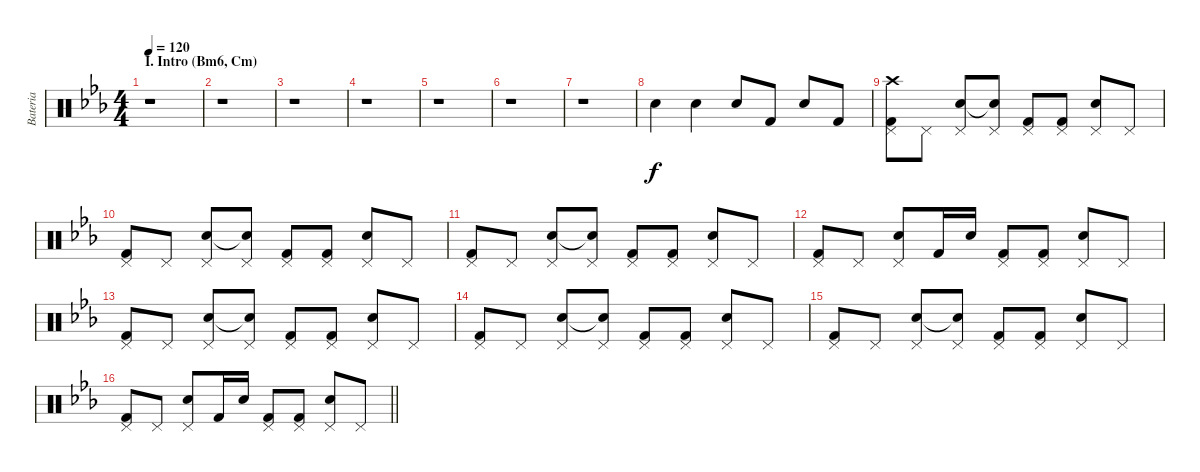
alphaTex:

\track ("Bateria" "Bateria") {instrument percussion}
\staff {score}
\articulation defaults
\ts (4 4)
\section ("" "I. Intro (Bm6, Cm)")
\tempo 120
\clef neutral
\ks eb
r.1{dy f} |
r.1 |
r.1 |
r.1 |
r.1 |
r.1 |
r.1 |
"Snare (hit) 2".4 "Snare (hit) 2".4 "Snare (hit) 2".8 "Kick (hit) 2".8 "Snare (hit) 2".8 "Kick (hit) 2".8 |
("Pedal Hi-Hat (hit)" "Crash high (hit)" "Kick (hit) 2").8 "Pedal Hi-Hat (hit)".8 ("Pedal Hi-Hat (hit)" "Snare (hit) 2").8 ("Pedal Hi-Hat (hit)" "Snare (hit)"{t}).8 ("Pedal Hi-Hat (hit)" "Kick (hit) 2").8 ("Pedal Hi-Hat (hit)" "Kick (hit) 2").8 ("Pedal Hi-Hat (hit)" "Snare (hit) 2").8 "Pedal Hi-Hat (hit)".8 |
("Pedal Hi-Hat (hit)" "Kick (hit) 2").8 "Pedal Hi-Hat (hit)".8 ("Pedal Hi-Hat (hit)" "Snare (hit) 2").8 ("Pedal Hi-Hat (hit)" "Snare (hit)"{t}).8 ("Pedal Hi-Hat (hit)" "Kick (hit) 2").8 ("Pedal Hi-Hat (hit)" "Kick (hit) 2").8 ("Pedal Hi-Hat (hit)" "Snare (hit) 2").8 "Pedal Hi-Hat (hit)".8 |
("Pedal Hi-Hat (hit)" "Kick (hit) 2").8 "Pedal Hi-Hat (hit)".8 ("Pedal Hi-Hat (hit)" "Snare (hit) 2").8 ("Pedal Hi-Hat (hit)" "Snare (hit)"{t}).8 ("Pedal Hi-Hat (hit)" "Kick (hit) 2").8 ("Pedal Hi-Hat (hit)" "Kick (hit) 2").8 ("Pedal Hi-Hat (hit)" "Snare (hit) 2").8 "Pedal Hi-Hat (hit)".8 |
("Pedal Hi-Hat (hit)" "Kick (hit) 2").8 "Pedal Hi-Hat (hit)".8 ("Pedal Hi-Hat (hit)" "Snare (hit) 2").8 "Kick (hit) 2".16 "Snare (hit) 2".16 ("Pedal Hi-Hat (hit)" "Kick (hit) 2").8 ("Pedal Hi-Hat (hit)" "Kick (hit) 2").8 ("Pedal Hi-Hat (hit)" "Snare (hit) 2").8 "Pedal Hi-Hat (hit)".8 |
("Pedal Hi-Hat (hit)" "Kick (hit) 2").8 "Pedal Hi-Hat (hit)".8 ("Pedal Hi-Hat (hit)" "Snare (hit) 2").8 ("Pedal Hi-Hat (hit)" "Snare (hit)"{t}).8 ("Pedal Hi-Hat (hit)" "Kick (hit) 2").8 ("Pedal Hi-Hat (hit)" "Kick (hit) 2").8 ("Pedal Hi-Hat (hit)" "Snare (hit) 2").8 "Pedal Hi-Hat (hit)".8 |
("Pedal Hi-Hat (hit)" "Kick (hit) 2").8 "Pedal Hi-Hat (hit)".8 ("Pedal Hi-Hat (hit)" "Snare (hit) 2").8 ("Pedal Hi-Hat (hit)" "Snare (hit)"{t}).8 ("Pedal Hi-Hat (hit)" "Kick (hit) 2").8 ("Pedal Hi-Hat (hit)" "Kick (hit) 2").8 ("Pedal Hi-Hat (hit)" "Snare (hit) 2").8 "Pedal Hi-Hat (hit)".8 |
("Pedal Hi-Hat (hit)" "Kick (hit) 2").8 "Pedal Hi-Hat (hit)".8 ("Pedal Hi-Hat (hit)" "Snare (hit) 2").8 ("Pedal Hi-Hat (hit)" "Snare (hit)"{t}).8 ("Pedal Hi-Hat (hit)" "Kick (hit) 2").8 ("Pedal Hi-Hat (hit)" "Kick (hit) 2").8 ("Pedal Hi-Hat (hit)" "Snare (hit) 2").8 "Pedal Hi-Hat (hit)".8 |
\barLineRight lightlight
("Pedal Hi-Hat (hit)" "Kick (hit) 2").8 "Pedal Hi-Hat (hit)".8 ("Pedal Hi-Hat (hit)" "Snare (hit) 2").8 "Kick (hit) 2".16 "Snare (hit) 2".16 ("Pedal Hi-Hat (hit)" "Kick (hit) 2").8 ("Pedal Hi-Hat (hit)" "Kick (hit) 2").8 ("Pedal Hi-Hat (hit)" "Snare (hit) 2").8 "Pedal Hi-Hat (hit)".8
